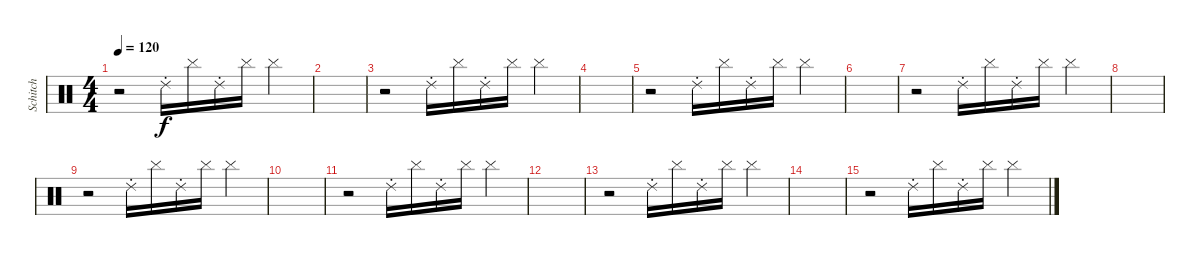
\track ("Schitch" "Schitch") {instrument percussion}
\staff {score}
\articulation defaults
\ts (4 4)
\tempo 120
\clef neutral
\ks c
r.2{dy f} "Ride (choke) 2".16 "Cymbal (hit)".16 "Ride (choke) 2".16 "Cymbal (hit)".16 "Cymbal (hit)".4 |
|
r.2 "Ride (choke) 2".16 "Cymbal (hit)".16 "Ride (choke) 2".16 "Cymbal (hit)".16 "Cymbal (hit)".4 |
|
r.2 "Ride (choke) 2".16 "Cymbal (hit)".16 "Ride (choke) 2".16 "Cymbal (hit)".16 "Cymbal (hit)".4 |
|
r.2 "Ride (choke) 2".16 "Cymbal (hit)".16 "Ride (choke) 2".16 "Cymbal (hit)".16 "Cymbal (hit)".4 |
|
r.2 "Ride (choke) 2".16 "Cymbal (hit)".16 "Ride (choke) 2".16 "Cymbal (hit)".16 "Cymbal (hit)".4 |
|
r.2 "Ride (choke) 2".16 "Cymbal (hit)".16 "Ride (choke) 2".16 "Cymbal (hit)".16 "Cymbal (hit)".4 |
|
r.2 "Ride (choke) 2".16 "Cymbal (hit)".16 "Ride (choke) 2".16 "Cymbal (hit)".16 "Cymbal (hit)".4 |
|
r.2 "Ride (choke) 2".16 "Cymbal (hit)".16 "Ride (choke) 2".16 "Cymbal (hit)".16 "Cymbal (hit)".4
